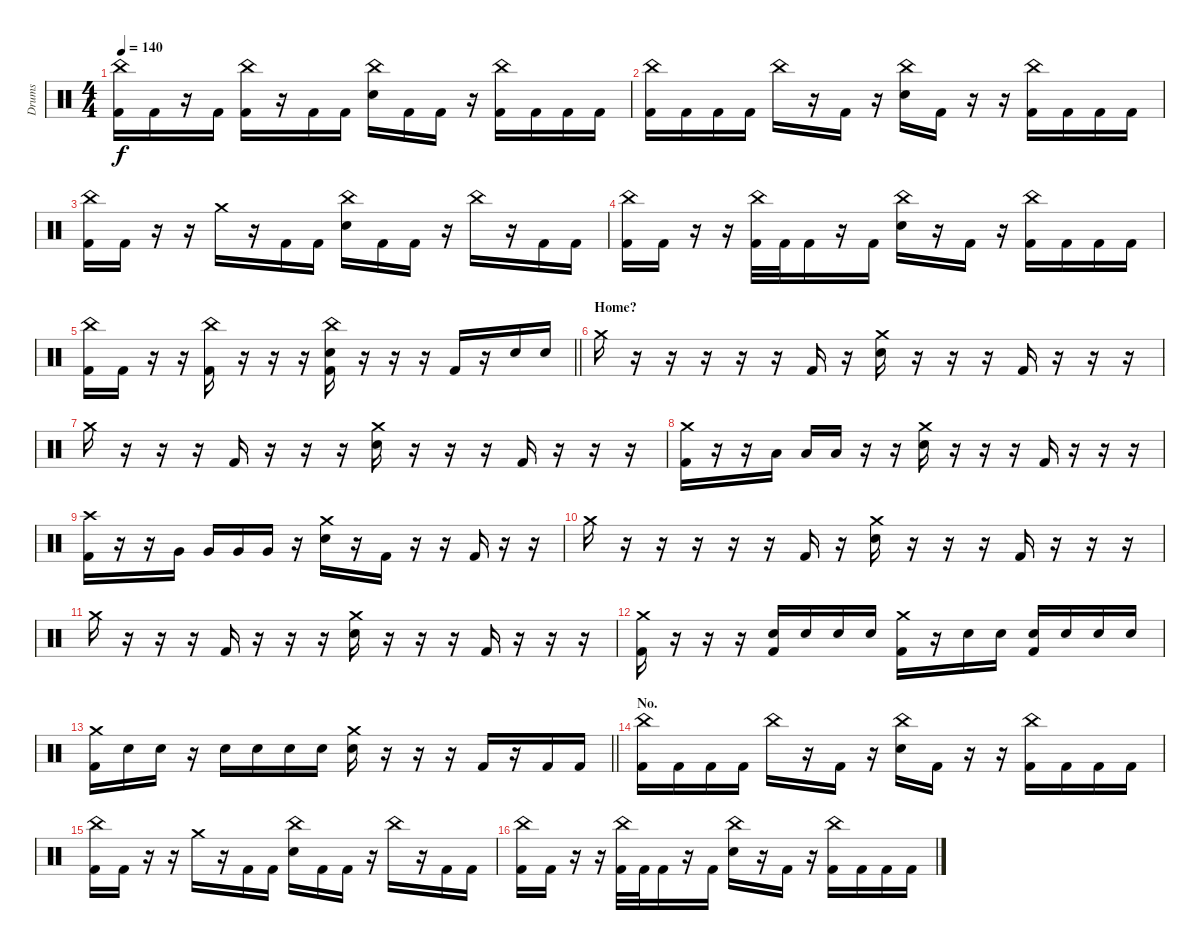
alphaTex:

\track ("Drums" "Drums") {instrument percussion}
\staff {score}
\articulation defaults
\ts (4 4)
\tempo 140
\clef neutral
\ks c
("China (hit)" "Kick (hit) 2").16{dy f} "Kick (hit) 2".16 r.16 "Kick (hit) 2".16 ("China (hit)" "Kick (hit) 2").16 r.16 "Kick (hit) 2".16 "Kick (hit) 2".16 ("China (hit)" "Snare (hit) 2").16 "Kick (hit) 2".16 "Kick (hit) 2".16 r.16 ("China (hit)" "Kick (hit) 2").16 "Kick (hit) 2".16 "Kick (hit) 2".16 "Kick (hit) 2".16 |
("China (hit)" "Kick (hit) 2").16 "Kick (hit) 2".16 "Kick (hit) 2".16 "Kick (hit) 2".16 "China (hit)".16 r.16 "Kick (hit) 2".16 r.16 ("China (hit)" "Snare (hit) 2").16 "Kick (hit) 2".16 r.16 r.16 ("China (hit)" "Kick (hit) 2").16 "Kick (hit) 2".16 "Kick (hit) 2".16 "Kick (hit) 2".16 |
("China (hit)" "Kick (hit) 2").16 "Kick (hit) 2".16 r.16 r.16 "Crash medium (hit)".16 r.16 "Kick (hit) 2".16 "Kick (hit) 2".16 ("China (hit)" "Snare (hit) 2").16 "Kick (hit) 2".16 "Kick (hit) 2".16 r.16 "China (hit)".16 r.16 "Kick (hit) 2".16 "Kick (hit) 2".16 |
("China (hit)" "Kick (hit) 2").16 "Kick (hit) 2".16 r.16 r.16 ("China (hit)" "Kick (hit) 2").32 "Kick (hit) 2".32 "Kick (hit) 2".16 r.16 "Kick (hit) 2".16 ("China (hit)" "Snare (hit) 2").16 r.16 "Kick (hit) 2".16 r.16 ("China (hit)" "Kick (hit) 2").16 "Kick (hit) 2".16 "Kick (hit) 2".16 "Kick (hit) 2".16 |
\barLineRight lightlight
("China (hit)" "Kick (hit) 2").16 "Kick (hit) 2".16 r.16 r.16 ("China (hit)" "Kick (hit) 2").16 r.16 r.16 r.16 ("China (hit)" "Snare (hit) 2" "Kick (hit) 2").16 r.16 r.16 r.16 "Kick (hit) 2".16 r.16 "Snare (hit) 2".16 "Snare (hit) 2".16 |
\section ("" "Home?")
"Crash medium (hit)".16 r.16 r.16 r.16 r.16 r.16 "Kick (hit) 2".16 r.16 ("Crash medium (hit)" "Snare (hit) 2").16 r.16 r.16 r.16 "Kick (hit) 2".16 r.16 r.16 r.16 |
"Crash medium (hit)".16 r.16 r.16 r.16 "Kick (hit) 2".16 r.16 r.16 r.16 ("Crash medium (hit)" "Snare (hit) 2").16 r.16 r.16 r.16 "Kick (hit) 2".16 r.16 r.16 r.16 |
("Crash medium (hit)" "Kick (hit) 2").16 r.16 r.16 "Low Tom (hit)".16 "Low Tom (hit)".16 "Low Tom (hit)".16 r.16 r.16 ("Crash medium (hit)" "Snare (hit) 2").16 r.16 r.16 r.16 "Kick (hit) 2".16 r.16 r.16 r.16 |
("Crash high (hit)" "Kick (hit) 2").16 r.16 r.16 "Very Low Tom (hit)".16 "Very Low Tom (hit)".16 "Very Low Tom (hit)".16 "Very Low Tom (hit)".16 r.16 ("Crash medium (hit)" "Snare (hit) 2").16 r.16 "Kick (hit) 2".16 r.16 r.16 "Kick (hit) 2".16 r.16 r.16 |
"Crash medium (hit)".16 r.16 r.16 r.16 r.16 r.16 "Kick (hit) 2".16 r.16 ("Crash medium (hit)" "Snare (hit) 2").16 r.16 r.16 r.16 "Kick (hit) 2".16 r.16 r.16 r.16 |
"Crash medium (hit)".16 r.16 r.16 r.16 "Kick (hit) 2".16 r.16 r.16 r.16 ("Crash medium (hit)" "Snare (hit) 2").16 r.16 r.16 r.16 "Kick (hit) 2".16 r.16 r.16 r.16 |
("Crash medium (hit)" "Kick (hit) 2").16 r.16 r.16 r.16 ("Snare (hit) 2" "Kick (hit) 2").16 "Snare (hit) 2".16 "Snare (hit) 2".16 "Snare (hit) 2".16 ("Crash medium (hit)" "Kick (hit) 2").16 r.16 "Snare (hit) 2".16 "Snare (hit) 2".16 ("Snare (hit) 2" "Kick (hit) 2").16 "Snare (hit) 2".16 "Snare (hit) 2".16 "Snare (hit) 2".16 |
\barLineRight lightlight
("Crash medium (hit)" "Kick (hit) 2").16 "Snare (hit) 2".16 "Snare (hit) 2".16 r.16 "Snare (hit) 2".16 "Snare (hit) 2".16 "Snare (hit) 2".16 "Snare (hit) 2".16 ("Crash medium (hit)" "Snare (hit) 2").16 r.16 r.16 r.16 "Kick (hit) 2".16 r.16 "Kick (hit) 2".16 "Kick (hit) 2".16 |
\section ("" "No.")
("China (hit)" "Kick (hit) 2").16 "Kick (hit) 2".16 "Kick (hit) 2".16 "Kick (hit) 2".16 "China (hit)".16 r.16 "Kick (hit) 2".16 r.16 ("China (hit)" "Snare (hit) 2").16 "Kick (hit) 2".16 r.16 r.16 ("China (hit)" "Kick (hit) 2").16 "Kick (hit) 2".16 "Kick (hit) 2".16 "Kick (hit) 2".16 |
("China (hit)" "Kick (hit) 2").16 "Kick (hit) 2".16 r.16 r.16 "Crash medium (hit)".16 r.16 "Kick (hit) 2".16 "Kick (hit) 2".16 ("China (hit)" "Snare (hit) 2").16 "Kick (hit) 2".16 "Kick (hit) 2".16 r.16 "China (hit)".16 r.16 "Kick (hit) 2".16 "Kick (hit) 2".16 |
("China (hit)" "Kick (hit) 2").16 "Kick (hit) 2".16 r.16 r.16 ("China (hit)" "Kick (hit) 2").32 "Kick (hit) 2".32 "Kick (hit) 2".16 r.16 "Kick (hit) 2".16 ("China (hit)" "Snare (hit) 2").16 r.16 "Kick (hit) 2".16 r.16 ("China (hit)" "Kick (hit) 2").16 "Kick (hit) 2".16 "Kick (hit) 2".16 "Kick (hit) 2".16
